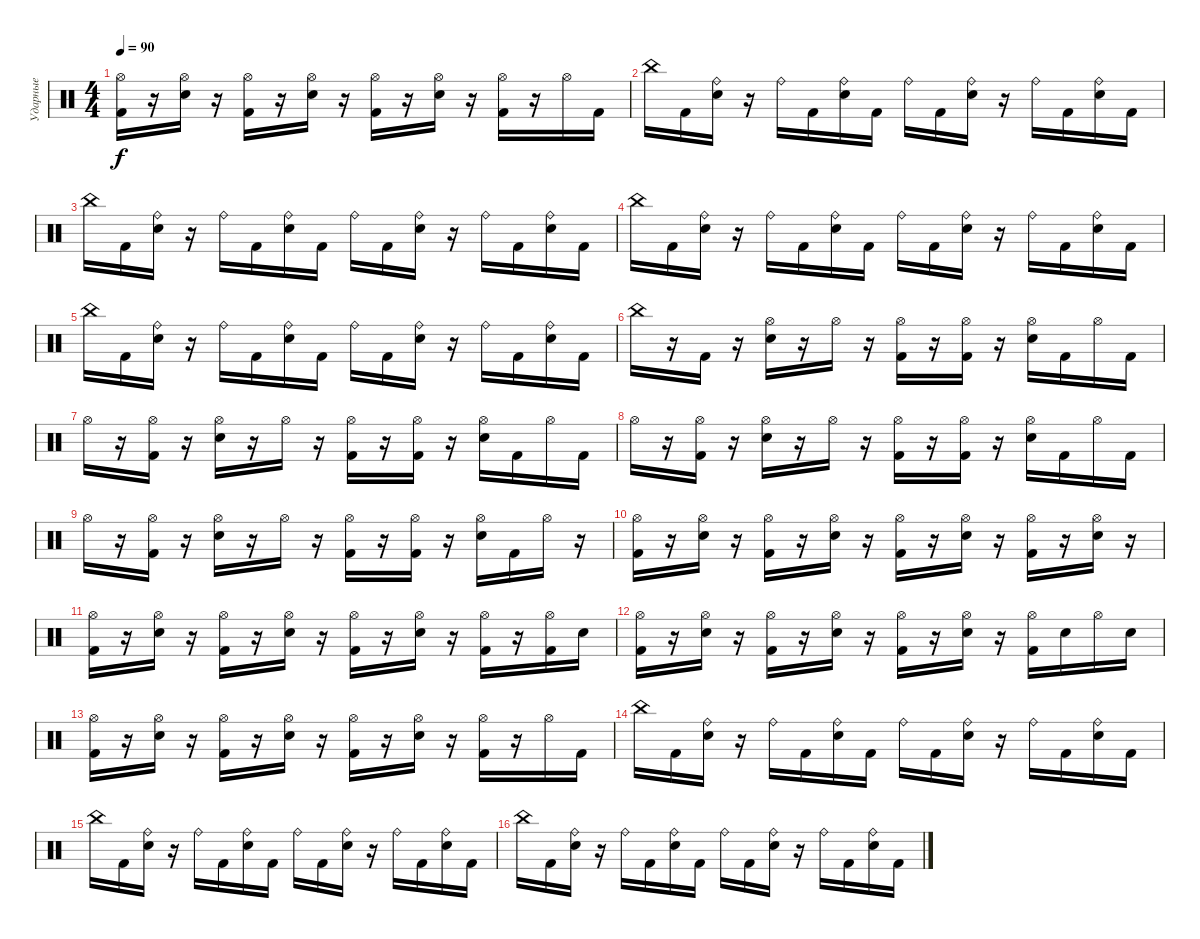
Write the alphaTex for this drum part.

\track ("Ударные" "Ударные") {instrument percussion}
\staff {score}
\articulation defaults
\ts (4 4)
\tempo 90
\clef neutral
\ks c
("Hi-Hat (open)" "Kick (hit) 2").16{dy f} r.16 ("Hi-Hat (open)" "Snare (hit) 2").16 r.16 ("Hi-Hat (open)" "Kick (hit) 2").16 r.16 ("Hi-Hat (open)" "Snare (hit) 2").16 r.16 ("Hi-Hat (open)" "Kick (hit) 2").16 r.16 ("Hi-Hat (open)" "Snare (hit) 2").16 r.16 ("Hi-Hat (open)" "Kick (hit) 2").16 r.16 "Hi-Hat (open)".16 "Kick (hit) 2".16 |
"China (hit)".16 "Kick (hit) 2".16 ("Ride (bell)" "Snare (hit) 2").16 r.16 "Ride (bell)".16 "Kick (hit) 2".16 ("Ride (bell)" "Snare (hit) 2").16 "Kick (hit) 2".16 "Ride (bell)".16 "Kick (hit) 2".16 ("Ride (bell)" "Snare (hit) 2").16 r.16 "Ride (bell)".16 "Kick (hit) 2".16 ("Ride (bell)" "Snare (hit) 2").16 "Kick (hit) 2".16 |
"China (hit)".16 "Kick (hit) 2".16 ("Ride (bell)" "Snare (hit) 2").16 r.16 "Ride (bell)".16 "Kick (hit) 2".16 ("Ride (bell)" "Snare (hit) 2").16 "Kick (hit) 2".16 "Ride (bell)".16 "Kick (hit) 2".16 ("Ride (bell)" "Snare (hit) 2").16 r.16 "Ride (bell)".16 "Kick (hit) 2".16 ("Ride (bell)" "Snare (hit) 2").16 "Kick (hit) 2".16 |
"China (hit)".16 "Kick (hit) 2".16 ("Ride (bell)" "Snare (hit) 2").16 r.16 "Ride (bell)".16 "Kick (hit) 2".16 ("Ride (bell)" "Snare (hit) 2").16 "Kick (hit) 2".16 "Ride (bell)".16 "Kick (hit) 2".16 ("Ride (bell)" "Snare (hit) 2").16 r.16 "Ride (bell)".16 "Kick (hit) 2".16 ("Ride (bell)" "Snare (hit) 2").16 "Kick (hit) 2".16 |
"China (hit)".16 "Kick (hit) 2".16 ("Ride (bell)" "Snare (hit) 2").16 r.16 "Ride (bell)".16 "Kick (hit) 2".16 ("Ride (bell)" "Snare (hit) 2").16 "Kick (hit) 2".16 "Ride (bell)".16 "Kick (hit) 2".16 ("Ride (bell)" "Snare (hit) 2").16 r.16 "Ride (bell)".16 "Kick (hit) 2".16 ("Ride (bell)" "Snare (hit) 2").16 "Kick (hit) 2".16 |
"China (hit)".16 r.16 "Kick (hit) 2".16 r.16 ("Hi-Hat (open)" "Snare (hit) 2").16 r.16 "Hi-Hat (open)".16 r.16 ("Hi-Hat (open)" "Kick (hit) 2").16 r.16 ("Hi-Hat (open)" "Kick (hit) 2").16 r.16 ("Hi-Hat (open)" "Snare (hit) 2").16 "Kick (hit) 2".16 "Hi-Hat (open)".16 "Kick (hit) 2".16 |
"Hi-Hat (open)".16 r.16 ("Hi-Hat (open)" "Kick (hit) 2").16 r.16 ("Hi-Hat (open)" "Snare (hit) 2").16 r.16 "Hi-Hat (open)".16 r.16 ("Hi-Hat (open)" "Kick (hit) 2").16 r.16 ("Hi-Hat (open)" "Kick (hit) 2").16 r.16 ("Hi-Hat (open)" "Snare (hit) 2").16 "Kick (hit) 2".16 "Hi-Hat (open)".16 "Kick (hit) 2".16 |
"Hi-Hat (open)".16 r.16 ("Hi-Hat (open)" "Kick (hit) 2").16 r.16 ("Hi-Hat (open)" "Snare (hit) 2").16 r.16 "Hi-Hat (open)".16 r.16 ("Hi-Hat (open)" "Kick (hit) 2").16 r.16 ("Hi-Hat (open)" "Kick (hit) 2").16 r.16 ("Hi-Hat (open)" "Snare (hit) 2").16 "Kick (hit) 2".16 "Hi-Hat (open)".16 "Kick (hit) 2".16 |
"Hi-Hat (open)".16 r.16 ("Hi-Hat (open)" "Kick (hit) 2").16 r.16 ("Hi-Hat (open)" "Snare (hit) 2").16 r.16 "Hi-Hat (open)".16 r.16 ("Hi-Hat (open)" "Kick (hit) 2").16 r.16 ("Hi-Hat (open)" "Kick (hit) 2").16 r.16 ("Hi-Hat (open)" "Snare (hit) 2").16 "Kick (hit) 2".16 "Hi-Hat (open)".16 r.16 |
("Hi-Hat (open)" "Kick (hit) 2").16 r.16 ("Hi-Hat (open)" "Snare (hit) 2").16 r.16 ("Hi-Hat (open)" "Kick (hit) 2").16 r.16 ("Hi-Hat (open)" "Snare (hit) 2").16 r.16 ("Hi-Hat (open)" "Kick (hit) 2").16 r.16 ("Hi-Hat (open)" "Snare (hit) 2").16 r.16 ("Hi-Hat (open)" "Kick (hit) 2").16 r.16 ("Hi-Hat (open)" "Snare (hit) 2").16 r.16 |
("Hi-Hat (open)" "Kick (hit) 2").16 r.16 ("Hi-Hat (open)" "Snare (hit) 2").16 r.16 ("Hi-Hat (open)" "Kick (hit) 2").16 r.16 ("Hi-Hat (open)" "Snare (hit) 2").16 r.16 ("Hi-Hat (open)" "Kick (hit) 2").16 r.16 ("Hi-Hat (open)" "Snare (hit) 2").16 r.16 ("Hi-Hat (open)" "Kick (hit) 2").16 r.16 ("Hi-Hat (open)" "Kick (hit) 2").16 "Snare (hit) 2".16 |
("Hi-Hat (open)" "Kick (hit) 2").16 r.16 ("Hi-Hat (open)" "Snare (hit) 2").16 r.16 ("Hi-Hat (open)" "Kick (hit) 2").16 r.16 ("Hi-Hat (open)" "Snare (hit) 2").16 r.16 ("Hi-Hat (open)" "Kick (hit) 2").16 r.16 ("Hi-Hat (open)" "Snare (hit) 2").16 r.16 ("Hi-Hat (open)" "Kick (hit) 2").16 "Snare (hit) 2".16 "Hi-Hat (open)".16 "Snare (hit) 2".16 |
("Hi-Hat (open)" "Kick (hit) 2").16 r.16 ("Hi-Hat (open)" "Snare (hit) 2").16 r.16 ("Hi-Hat (open)" "Kick (hit) 2").16 r.16 ("Hi-Hat (open)" "Snare (hit) 2").16 r.16 ("Hi-Hat (open)" "Kick (hit) 2").16 r.16 ("Hi-Hat (open)" "Snare (hit) 2").16 r.16 ("Hi-Hat (open)" "Kick (hit) 2").16 r.16 "Hi-Hat (open)".16 "Kick (hit) 2".16 |
"China (hit)".16 "Kick (hit) 2".16 ("Ride (bell)" "Snare (hit) 2").16 r.16 "Ride (bell)".16 "Kick (hit) 2".16 ("Ride (bell)" "Snare (hit) 2").16 "Kick (hit) 2".16 "Ride (bell)".16 "Kick (hit) 2".16 ("Ride (bell)" "Snare (hit) 2").16 r.16 "Ride (bell)".16 "Kick (hit) 2".16 ("Ride (bell)" "Snare (hit) 2").16 "Kick (hit) 2".16 |
"China (hit)".16 "Kick (hit) 2".16 ("Ride (bell)" "Snare (hit) 2").16 r.16 "Ride (bell)".16 "Kick (hit) 2".16 ("Ride (bell)" "Snare (hit) 2").16 "Kick (hit) 2".16 "Ride (bell)".16 "Kick (hit) 2".16 ("Ride (bell)" "Snare (hit) 2").16 r.16 "Ride (bell)".16 "Kick (hit) 2".16 ("Ride (bell)" "Snare (hit) 2").16 "Kick (hit) 2".16 |
"China (hit)".16 "Kick (hit) 2".16 ("Ride (bell)" "Snare (hit) 2").16 r.16 "Ride (bell)".16 "Kick (hit) 2".16 ("Ride (bell)" "Snare (hit) 2").16 "Kick (hit) 2".16 "Ride (bell)".16 "Kick (hit) 2".16 ("Ride (bell)" "Snare (hit) 2").16 r.16 "Ride (bell)".16 "Kick (hit) 2".16 ("Ride (bell)" "Snare (hit) 2").16 "Kick (hit) 2".16
